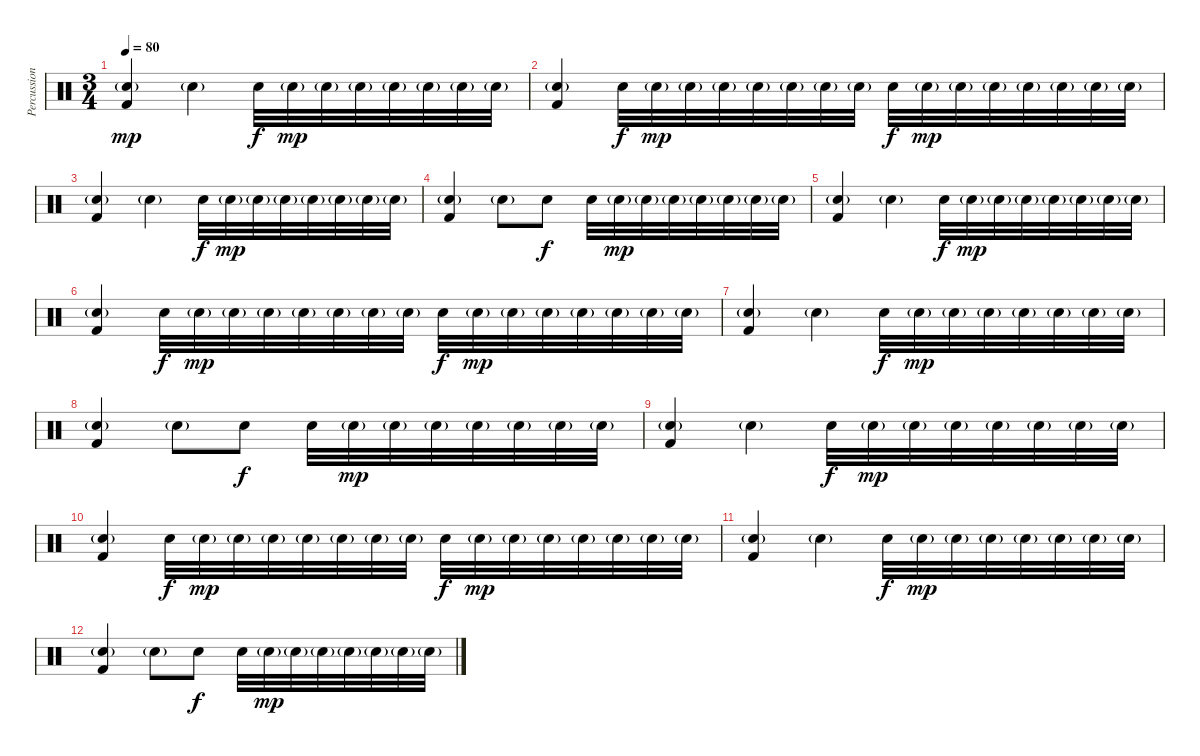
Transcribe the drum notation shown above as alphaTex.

\track ("Percussion" "Percussion") {instrument percussion}
\staff {score}
\articulation defaults
\ts (3 4)
\tempo 80
\clef neutral
\ks c
("Electric Snare (hit)"{g} "Kick (hit) 2").4{dy mp} "Electric Snare (hit)"{g}.4 "Electric Snare (hit)".32{dy f} "Electric Snare (hit)"{g}.32{dy mp} "Electric Snare (hit)"{g}.32 "Electric Snare (hit)"{g}.32 "Electric Snare (hit)"{g}.32 "Electric Snare (hit)"{g}.32 "Electric Snare (hit)"{g}.32 "Electric Snare (hit)"{g}.32 |
("Electric Snare (hit)"{g} "Kick (hit) 2").4 "Electric Snare (hit)".32{dy f} "Electric Snare (hit)"{g}.32{dy mp} "Electric Snare (hit)"{g}.32 "Electric Snare (hit)"{g}.32 "Electric Snare (hit)"{g}.32 "Electric Snare (hit)"{g}.32 "Electric Snare (hit)"{g}.32 "Electric Snare (hit)"{g}.32 "Electric Snare (hit)".32{dy f} "Electric Snare (hit)"{g}.32{dy mp} "Electric Snare (hit)"{g}.32 "Electric Snare (hit)"{g}.32 "Electric Snare (hit)"{g}.32 "Electric Snare (hit)"{g}.32 "Electric Snare (hit)"{g}.32 "Electric Snare (hit)"{g}.32 |
("Electric Snare (hit)"{g} "Kick (hit) 2").4 "Electric Snare (hit)"{g}.4 "Electric Snare (hit)".32{dy f} "Electric Snare (hit)"{g}.32{dy mp} "Electric Snare (hit)"{g}.32 "Electric Snare (hit)"{g}.32 "Electric Snare (hit)"{g}.32 "Electric Snare (hit)"{g}.32 "Electric Snare (hit)"{g}.32 "Electric Snare (hit)"{g}.32 |
("Electric Snare (hit)"{g} "Kick (hit) 2").4 "Electric Snare (hit)"{g}.8 "Electric Snare (hit)".8{dy f} "Electric Snare (hit)".32 "Electric Snare (hit)"{g}.32{dy mp} "Electric Snare (hit)"{g}.32 "Electric Snare (hit)"{g}.32 "Electric Snare (hit)"{g}.32 "Electric Snare (hit)"{g}.32 "Electric Snare (hit)"{g}.32 "Electric Snare (hit)"{g}.32 |
("Electric Snare (hit)"{g} "Kick (hit) 2").4 "Electric Snare (hit)"{g}.4 "Electric Snare (hit)".32{dy f} "Electric Snare (hit)"{g}.32{dy mp} "Electric Snare (hit)"{g}.32 "Electric Snare (hit)"{g}.32 "Electric Snare (hit)"{g}.32 "Electric Snare (hit)"{g}.32 "Electric Snare (hit)"{g}.32 "Electric Snare (hit)"{g}.32 |
("Electric Snare (hit)"{g} "Kick (hit) 2").4 "Electric Snare (hit)".32{dy f} "Electric Snare (hit)"{g}.32{dy mp} "Electric Snare (hit)"{g}.32 "Electric Snare (hit)"{g}.32 "Electric Snare (hit)"{g}.32 "Electric Snare (hit)"{g}.32 "Electric Snare (hit)"{g}.32 "Electric Snare (hit)"{g}.32 "Electric Snare (hit)".32{dy f} "Electric Snare (hit)"{g}.32{dy mp} "Electric Snare (hit)"{g}.32 "Electric Snare (hit)"{g}.32 "Electric Snare (hit)"{g}.32 "Electric Snare (hit)"{g}.32 "Electric Snare (hit)"{g}.32 "Electric Snare (hit)"{g}.32 |
("Electric Snare (hit)"{g} "Kick (hit) 2").4 "Electric Snare (hit)"{g}.4 "Electric Snare (hit)".32{dy f} "Electric Snare (hit)"{g}.32{dy mp} "Electric Snare (hit)"{g}.32 "Electric Snare (hit)"{g}.32 "Electric Snare (hit)"{g}.32 "Electric Snare (hit)"{g}.32 "Electric Snare (hit)"{g}.32 "Electric Snare (hit)"{g}.32 |
("Electric Snare (hit)"{g} "Kick (hit) 2").4 "Electric Snare (hit)"{g}.8 "Electric Snare (hit)".8{dy f} "Electric Snare (hit)".32 "Electric Snare (hit)"{g}.32{dy mp} "Electric Snare (hit)"{g}.32 "Electric Snare (hit)"{g}.32 "Electric Snare (hit)"{g}.32 "Electric Snare (hit)"{g}.32 "Electric Snare (hit)"{g}.32 "Electric Snare (hit)"{g}.32 |
("Electric Snare (hit)"{g} "Kick (hit) 2").4 "Electric Snare (hit)"{g}.4 "Electric Snare (hit)".32{dy f} "Electric Snare (hit)"{g}.32{dy mp} "Electric Snare (hit)"{g}.32 "Electric Snare (hit)"{g}.32 "Electric Snare (hit)"{g}.32 "Electric Snare (hit)"{g}.32 "Electric Snare (hit)"{g}.32 "Electric Snare (hit)"{g}.32 |
("Electric Snare (hit)"{g} "Kick (hit) 2").4 "Electric Snare (hit)".32{dy f} "Electric Snare (hit)"{g}.32{dy mp} "Electric Snare (hit)"{g}.32 "Electric Snare (hit)"{g}.32 "Electric Snare (hit)"{g}.32 "Electric Snare (hit)"{g}.32 "Electric Snare (hit)"{g}.32 "Electric Snare (hit)"{g}.32 "Electric Snare (hit)".32{dy f} "Electric Snare (hit)"{g}.32{dy mp} "Electric Snare (hit)"{g}.32 "Electric Snare (hit)"{g}.32 "Electric Snare (hit)"{g}.32 "Electric Snare (hit)"{g}.32 "Electric Snare (hit)"{g}.32 "Electric Snare (hit)"{g}.32 |
("Electric Snare (hit)"{g} "Kick (hit) 2").4 "Electric Snare (hit)"{g}.4 "Electric Snare (hit)".32{dy f} "Electric Snare (hit)"{g}.32{dy mp} "Electric Snare (hit)"{g}.32 "Electric Snare (hit)"{g}.32 "Electric Snare (hit)"{g}.32 "Electric Snare (hit)"{g}.32 "Electric Snare (hit)"{g}.32 "Electric Snare (hit)"{g}.32 |
("Electric Snare (hit)"{g} "Kick (hit) 2").4 "Electric Snare (hit)"{g}.8 "Electric Snare (hit)".8{dy f} "Electric Snare (hit)".32 "Electric Snare (hit)"{g}.32{dy mp} "Electric Snare (hit)"{g}.32 "Electric Snare (hit)"{g}.32 "Electric Snare (hit)"{g}.32 "Electric Snare (hit)"{g}.32 "Electric Snare (hit)"{g}.32 "Electric Snare (hit)"{g}.32
